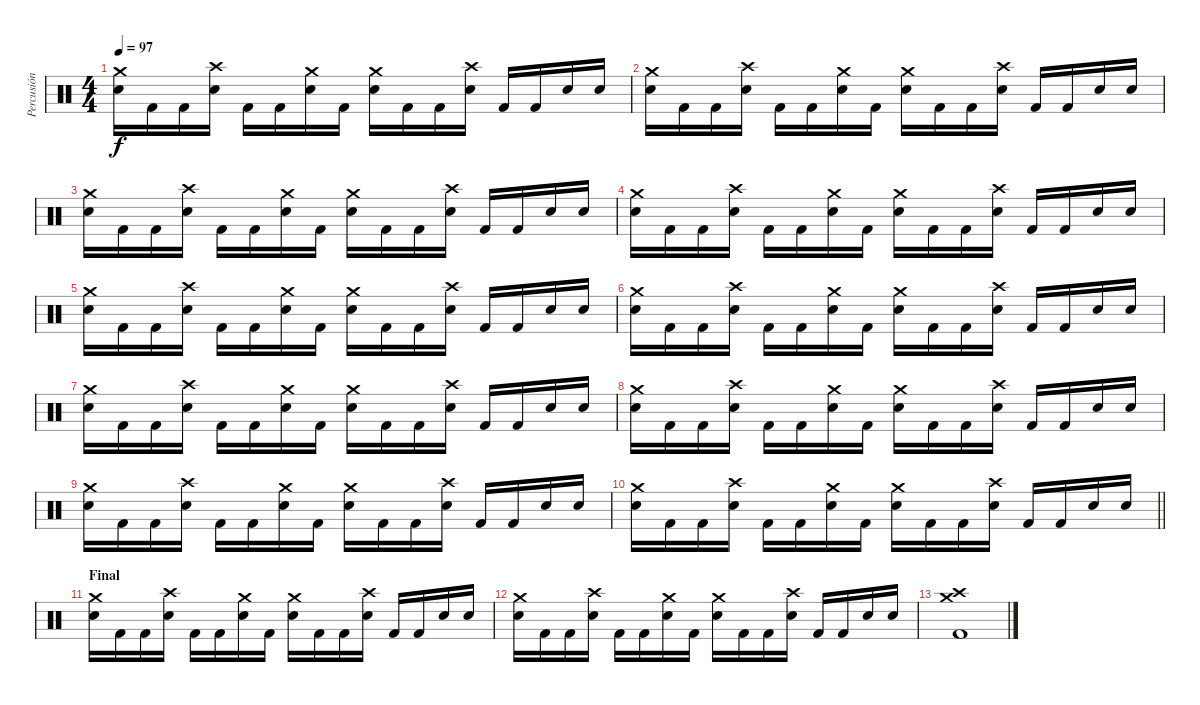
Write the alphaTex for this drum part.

\track ("Percusión" "Percusión") {instrument percussion}
\staff {score}
\articulation defaults
\ts (4 4)
\tempo 97
\clef neutral
\ks c
("Crash medium (hit)" "Electric Snare (hit)").16{dy f} "Kick (hit) 2".16 "Kick (hit) 2".16 ("Crash high (hit)" "Electric Snare (hit)").16 "Kick (hit) 2".16 "Kick (hit) 2".16 ("Crash medium (hit)" "Electric Snare (hit)").16 "Kick (hit) 2".16 ("Crash medium (hit)" "Electric Snare (hit)").16 "Kick (hit) 2".16 "Kick (hit) 2".16 ("Crash high (hit)" "Electric Snare (hit)").16 "Kick (hit) 2".16 "Kick (hit) 2".16 "Electric Snare (hit)".16 "Electric Snare (hit)".16 |
("Crash medium (hit)" "Electric Snare (hit)").16 "Kick (hit) 2".16 "Kick (hit) 2".16 ("Crash high (hit)" "Electric Snare (hit)").16 "Kick (hit) 2".16 "Kick (hit) 2".16 ("Crash medium (hit)" "Electric Snare (hit)").16 "Kick (hit) 2".16 ("Crash medium (hit)" "Electric Snare (hit)").16 "Kick (hit) 2".16 "Kick (hit) 2".16 ("Crash high (hit)" "Electric Snare (hit)").16 "Kick (hit) 2".16 "Kick (hit) 2".16 "Electric Snare (hit)".16 "Electric Snare (hit)".16 |
("Crash medium (hit)" "Electric Snare (hit)").16 "Kick (hit) 2".16 "Kick (hit) 2".16 ("Crash high (hit)" "Electric Snare (hit)").16 "Kick (hit) 2".16 "Kick (hit) 2".16 ("Crash medium (hit)" "Electric Snare (hit)").16 "Kick (hit) 2".16 ("Crash medium (hit)" "Electric Snare (hit)").16 "Kick (hit) 2".16 "Kick (hit) 2".16 ("Crash high (hit)" "Electric Snare (hit)").16 "Kick (hit) 2".16 "Kick (hit) 2".16 "Electric Snare (hit)".16 "Electric Snare (hit)".16 |
("Crash medium (hit)" "Electric Snare (hit)").16 "Kick (hit) 2".16 "Kick (hit) 2".16 ("Crash high (hit)" "Electric Snare (hit)").16 "Kick (hit) 2".16 "Kick (hit) 2".16 ("Crash medium (hit)" "Electric Snare (hit)").16 "Kick (hit) 2".16 ("Crash medium (hit)" "Electric Snare (hit)").16 "Kick (hit) 2".16 "Kick (hit) 2".16 ("Crash high (hit)" "Electric Snare (hit)").16 "Kick (hit) 2".16 "Kick (hit) 2".16 "Electric Snare (hit)".16 "Electric Snare (hit)".16 |
("Crash medium (hit)" "Electric Snare (hit)").16 "Kick (hit) 2".16 "Kick (hit) 2".16 ("Crash high (hit)" "Electric Snare (hit)").16 "Kick (hit) 2".16 "Kick (hit) 2".16 ("Crash medium (hit)" "Electric Snare (hit)").16 "Kick (hit) 2".16 ("Crash medium (hit)" "Electric Snare (hit)").16 "Kick (hit) 2".16 "Kick (hit) 2".16 ("Crash high (hit)" "Electric Snare (hit)").16 "Kick (hit) 2".16 "Kick (hit) 2".16 "Electric Snare (hit)".16 "Electric Snare (hit)".16 |
("Crash medium (hit)" "Electric Snare (hit)").16 "Kick (hit) 2".16 "Kick (hit) 2".16 ("Crash high (hit)" "Electric Snare (hit)").16 "Kick (hit) 2".16 "Kick (hit) 2".16 ("Crash medium (hit)" "Electric Snare (hit)").16 "Kick (hit) 2".16 ("Crash medium (hit)" "Electric Snare (hit)").16 "Kick (hit) 2".16 "Kick (hit) 2".16 ("Crash high (hit)" "Electric Snare (hit)").16 "Kick (hit) 2".16 "Kick (hit) 2".16 "Electric Snare (hit)".16 "Electric Snare (hit)".16 |
("Crash medium (hit)" "Electric Snare (hit)").16 "Kick (hit) 2".16 "Kick (hit) 2".16 ("Crash high (hit)" "Electric Snare (hit)").16 "Kick (hit) 2".16 "Kick (hit) 2".16 ("Crash medium (hit)" "Electric Snare (hit)").16 "Kick (hit) 2".16 ("Crash medium (hit)" "Electric Snare (hit)").16 "Kick (hit) 2".16 "Kick (hit) 2".16 ("Crash high (hit)" "Electric Snare (hit)").16 "Kick (hit) 2".16 "Kick (hit) 2".16 "Electric Snare (hit)".16 "Electric Snare (hit)".16 |
("Crash medium (hit)" "Electric Snare (hit)").16 "Kick (hit) 2".16 "Kick (hit) 2".16 ("Crash high (hit)" "Electric Snare (hit)").16 "Kick (hit) 2".16 "Kick (hit) 2".16 ("Crash medium (hit)" "Electric Snare (hit)").16 "Kick (hit) 2".16 ("Crash medium (hit)" "Electric Snare (hit)").16 "Kick (hit) 2".16 "Kick (hit) 2".16 ("Crash high (hit)" "Electric Snare (hit)").16 "Kick (hit) 2".16 "Kick (hit) 2".16 "Electric Snare (hit)".16 "Electric Snare (hit)".16 |
("Crash medium (hit)" "Electric Snare (hit)").16 "Kick (hit) 2".16 "Kick (hit) 2".16 ("Crash high (hit)" "Electric Snare (hit)").16 "Kick (hit) 2".16 "Kick (hit) 2".16 ("Crash medium (hit)" "Electric Snare (hit)").16 "Kick (hit) 2".16 ("Crash medium (hit)" "Electric Snare (hit)").16 "Kick (hit) 2".16 "Kick (hit) 2".16 ("Crash high (hit)" "Electric Snare (hit)").16 "Kick (hit) 2".16 "Kick (hit) 2".16 "Electric Snare (hit)".16 "Electric Snare (hit)".16 |
\barLineRight lightlight
("Crash medium (hit)" "Electric Snare (hit)").16 "Kick (hit) 2".16 "Kick (hit) 2".16 ("Crash high (hit)" "Electric Snare (hit)").16 "Kick (hit) 2".16 "Kick (hit) 2".16 ("Crash medium (hit)" "Electric Snare (hit)").16 "Kick (hit) 2".16 ("Crash medium (hit)" "Electric Snare (hit)").16 "Kick (hit) 2".16 "Kick (hit) 2".16 ("Crash high (hit)" "Electric Snare (hit)").16 "Kick (hit) 2".16 "Kick (hit) 2".16 "Electric Snare (hit)".16 "Electric Snare (hit)".16 |
\section ("" "Final")
("Crash medium (hit)" "Electric Snare (hit)").16 "Kick (hit) 2".16 "Kick (hit) 2".16 ("Crash high (hit)" "Electric Snare (hit)").16 "Kick (hit) 2".16 "Kick (hit) 2".16 ("Crash medium (hit)" "Electric Snare (hit)").16 "Kick (hit) 2".16 ("Crash medium (hit)" "Electric Snare (hit)").16 "Kick (hit) 2".16 "Kick (hit) 2".16 ("Crash high (hit)" "Electric Snare (hit)").16 "Kick (hit) 2".16 "Kick (hit) 2".16 "Electric Snare (hit)".16 "Electric Snare (hit)".16 |
("Crash medium (hit)" "Electric Snare (hit)").16 "Kick (hit) 2".16 "Kick (hit) 2".16 ("Crash high (hit)" "Electric Snare (hit)").16 "Kick (hit) 2".16 "Kick (hit) 2".16 ("Crash medium (hit)" "Electric Snare (hit)").16 "Kick (hit) 2".16 ("Crash medium (hit)" "Electric Snare (hit)").16 "Kick (hit) 2".16 "Kick (hit) 2".16 ("Crash high (hit)" "Electric Snare (hit)").16 "Kick (hit) 2".16 "Kick (hit) 2".16 "Electric Snare (hit)".16 "Electric Snare (hit)".16 |
("Crash medium (hit)" "Crash high (hit)" "Kick (hit) 2").1
